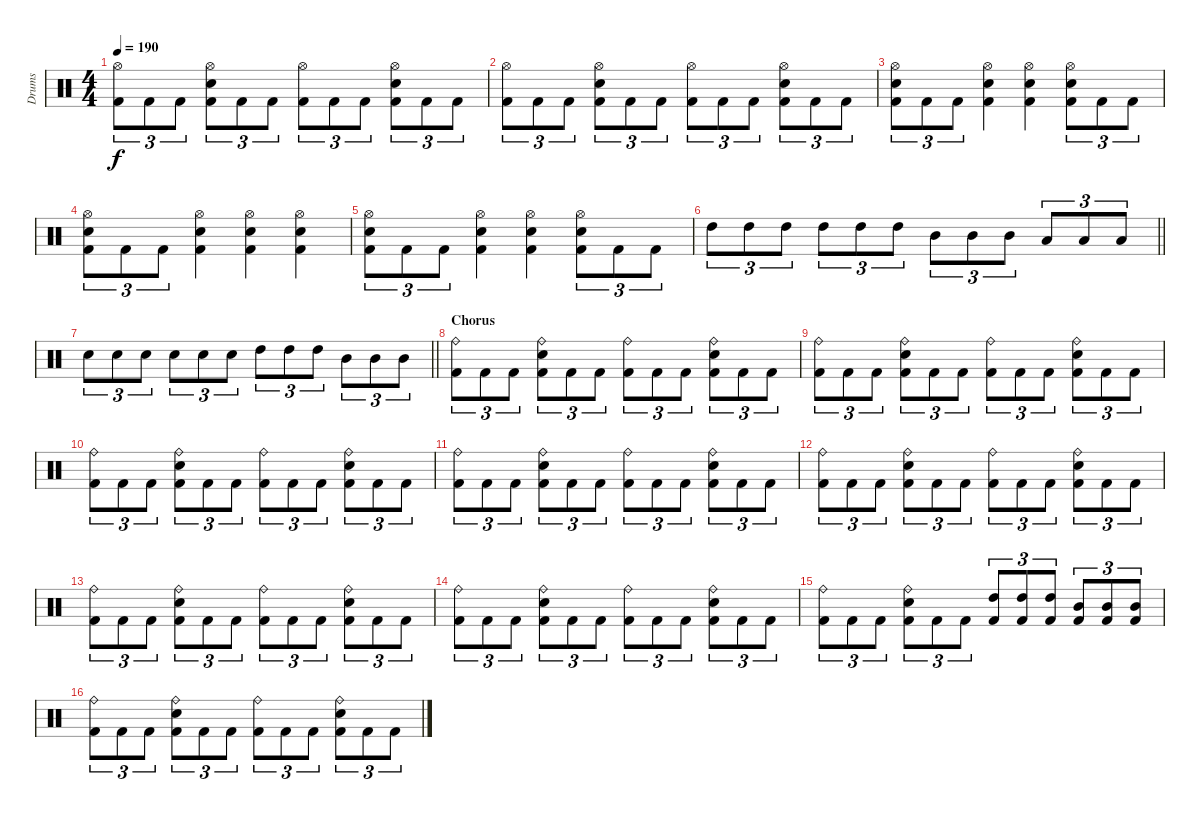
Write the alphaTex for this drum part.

\track ("Drums" "Drums") {instrument percussion}
\staff {score}
\articulation defaults
\ts (4 4)
\tempo 190
\clef neutral
\ks c
("Hi-Hat (open)" "Kick (hit) 2").8{tu (3 2) dy f} "Kick (hit) 2".8{tu (3 2)} "Kick (hit) 2".8{tu (3 2)} ("Hi-Hat (open)" "Electric Snare (hit)" "Kick (hit) 2").8{tu (3 2)} "Kick (hit) 2".8{tu (3 2)} "Kick (hit) 2".8{tu (3 2)} ("Hi-Hat (open)" "Kick (hit) 2").8{tu (3 2)} "Kick (hit) 2".8{tu (3 2)} "Kick (hit) 2".8{tu (3 2)} ("Hi-Hat (open)" "Electric Snare (hit)" "Kick (hit) 2").8{tu (3 2)} "Kick (hit) 2".8{tu (3 2)} "Kick (hit) 2".8{tu (3 2)} |
("Hi-Hat (open)" "Kick (hit) 2").8{tu (3 2)} "Kick (hit) 2".8{tu (3 2)} "Kick (hit) 2".8{tu (3 2)} ("Hi-Hat (open)" "Electric Snare (hit)" "Kick (hit) 2").8{tu (3 2)} "Kick (hit) 2".8{tu (3 2)} "Kick (hit) 2".8{tu (3 2)} ("Hi-Hat (open)" "Kick (hit) 2").8{tu (3 2)} "Kick (hit) 2".8{tu (3 2)} "Kick (hit) 2".8{tu (3 2)} ("Hi-Hat (open)" "Electric Snare (hit)" "Kick (hit) 2").8{tu (3 2)} "Kick (hit) 2".8{tu (3 2)} "Kick (hit) 2".8{tu (3 2)} |
("Hi-Hat (open)" "Electric Snare (hit)" "Kick (hit) 2").8{tu (3 2)} "Kick (hit) 2".8{tu (3 2)} "Kick (hit) 2".8{tu (3 2)} ("Hi-Hat (open)" "Electric Snare (hit)" "Kick (hit) 2").4 ("Hi-Hat (open)" "Electric Snare (hit)" "Kick (hit) 2").4 ("Hi-Hat (open)" "Electric Snare (hit)" "Kick (hit) 2").8{tu (3 2)} "Kick (hit) 2".8{tu (3 2)} "Kick (hit) 2".8{tu (3 2)} |
("Hi-Hat (open)" "Electric Snare (hit)" "Kick (hit) 2").8{tu (3 2)} "Kick (hit) 2".8{tu (3 2)} "Kick (hit) 2".8{tu (3 2)} ("Hi-Hat (open)" "Electric Snare (hit)" "Kick (hit) 2").4 ("Hi-Hat (open)" "Electric Snare (hit)" "Kick (hit) 2").4 ("Hi-Hat (open)" "Electric Snare (hit)" "Kick (hit) 2").4 |
("Hi-Hat (open)" "Electric Snare (hit)" "Kick (hit) 2").8{tu (3 2)} "Kick (hit) 2".8{tu (3 2)} "Kick (hit) 2".8{tu (3 2)} ("Hi-Hat (open)" "Electric Snare (hit)" "Kick (hit) 2").4 ("Hi-Hat (open)" "Electric Snare (hit)" "Kick (hit) 2").4 ("Hi-Hat (open)" "Electric Snare (hit)" "Kick (hit) 2").8{tu (3 2)} "Kick (hit) 2".8{tu (3 2)} "Kick (hit) 2".8{tu (3 2)} |
\barLineRight lightlight "High Tom (hit)".8{tu (3 2)} "High Tom (hit)".8{tu (3 2)} "High Tom (hit)".8{tu (3 2)} "High Tom (hit)".8{tu (3 2)} "High Tom (hit)".8{tu (3 2)} "High Tom (hit)".8{tu (3 2)} "Mid Tom (hit)".8{tu (3 2)} "Mid Tom (hit)".8{tu (3 2)} "Mid Tom (hit)".8{tu (3 2)} "Low Floor Tom (hit)".8{tu (3 2)} "Low Floor Tom (hit)".8{tu (3 2)} "Low Floor Tom (hit)".8{tu (3 2)}
|
\barLineRight lightlight "Electric Snare (hit)".8{tu (3 2)} "Electric Snare (hit)".8{tu (3 2)} "Electric Snare (hit)".8{tu (3 2)} "Electric Snare (hit)".8{tu (3 2)} "Electric Snare (hit)".8{tu (3 2)} "Electric Snare (hit)".8{tu (3 2)} "High Tom (hit)".8{tu (3 2)} "High Tom (hit)".8{tu (3 2)} "High Tom (hit)".8{tu (3 2)} "Mid Tom (hit)".8{tu (3 2)} "Mid Tom (hit)".8{tu (3 2)} "Mid Tom (hit)".8{tu (3 2)}
|
\section ("" "Chorus")
("Ride (bell)" "Kick (hit) 2").8{tu (3 2)} "Kick (hit) 2".8{tu (3 2)} "Kick (hit) 2".8{tu (3 2)} ("Ride (bell)" "Electric Snare (hit)" "Kick (hit) 2").8{tu (3 2)} "Kick (hit) 2".8{tu (3 2)} "Kick (hit) 2".8{tu (3 2)} ("Ride (bell)" "Kick (hit) 2").8{tu (3 2)} "Kick (hit) 2".8{tu (3 2)} "Kick (hit) 2".8{tu (3 2)} ("Ride (bell)" "Electric Snare (hit)" "Kick (hit) 2").8{tu (3 2)} "Kick (hit) 2".8{tu (3 2)} "Kick (hit) 2".8{tu (3 2)} |
("Ride (bell)" "Kick (hit) 2").8{tu (3 2)} "Kick (hit) 2".8{tu (3 2)} "Kick (hit) 2".8{tu (3 2)} ("Ride (bell)" "Electric Snare (hit)" "Kick (hit) 2").8{tu (3 2)} "Kick (hit) 2".8{tu (3 2)} "Kick (hit) 2".8{tu (3 2)} ("Ride (bell)" "Kick (hit) 2").8{tu (3 2)} "Kick (hit) 2".8{tu (3 2)} "Kick (hit) 2".8{tu (3 2)} ("Ride (bell)" "Electric Snare (hit)" "Kick (hit) 2").8{tu (3 2)} "Kick (hit) 2".8{tu (3 2)} "Kick (hit) 2".8{tu (3 2)} |
("Ride (bell)" "Kick (hit) 2").8{tu (3 2)} "Kick (hit) 2".8{tu (3 2)} "Kick (hit) 2".8{tu (3 2)} ("Ride (bell)" "Electric Snare (hit)" "Kick (hit) 2").8{tu (3 2)} "Kick (hit) 2".8{tu (3 2)} "Kick (hit) 2".8{tu (3 2)} ("Ride (bell)" "Kick (hit) 2").8{tu (3 2)} "Kick (hit) 2".8{tu (3 2)} "Kick (hit) 2".8{tu (3 2)} ("Ride (bell)" "Electric Snare (hit)" "Kick (hit) 2").8{tu (3 2)} "Kick (hit) 2".8{tu (3 2)} "Kick (hit) 2".8{tu (3 2)} |
("Ride (bell)" "Kick (hit) 2").8{tu (3 2)} "Kick (hit) 2".8{tu (3 2)} "Kick (hit) 2".8{tu (3 2)} ("Ride (bell)" "Electric Snare (hit)" "Kick (hit) 2").8{tu (3 2)} "Kick (hit) 2".8{tu (3 2)} "Kick (hit) 2".8{tu (3 2)} ("Ride (bell)" "Kick (hit) 2").8{tu (3 2)} "Kick (hit) 2".8{tu (3 2)} "Kick (hit) 2".8{tu (3 2)} ("Ride (bell)" "Electric Snare (hit)" "Kick (hit) 2").8{tu (3 2)} "Kick (hit) 2".8{tu (3 2)} "Kick (hit) 2".8{tu (3 2)} |
("Ride (bell)" "Kick (hit) 2").8{tu (3 2)} "Kick (hit) 2".8{tu (3 2)} "Kick (hit) 2".8{tu (3 2)} ("Ride (bell)" "Electric Snare (hit)" "Kick (hit) 2").8{tu (3 2)} "Kick (hit) 2".8{tu (3 2)} "Kick (hit) 2".8{tu (3 2)} ("Ride (bell)" "Kick (hit) 2").8{tu (3 2)} "Kick (hit) 2".8{tu (3 2)} "Kick (hit) 2".8{tu (3 2)} ("Ride (bell)" "Electric Snare (hit)" "Kick (hit) 2").8{tu (3 2)} "Kick (hit) 2".8{tu (3 2)} "Kick (hit) 2".8{tu (3 2)} |
("Ride (bell)" "Kick (hit) 2").8{tu (3 2)} "Kick (hit) 2".8{tu (3 2)} "Kick (hit) 2".8{tu (3 2)} ("Ride (bell)" "Electric Snare (hit)" "Kick (hit) 2").8{tu (3 2)} "Kick (hit) 2".8{tu (3 2)} "Kick (hit) 2".8{tu (3 2)} ("Ride (bell)" "Kick (hit) 2").8{tu (3 2)} "Kick (hit) 2".8{tu (3 2)} "Kick (hit) 2".8{tu (3 2)} ("Ride (bell)" "Electric Snare (hit)" "Kick (hit) 2").8{tu (3 2)} "Kick (hit) 2".8{tu (3 2)} "Kick (hit) 2".8{tu (3 2)} |
("Ride (bell)" "Kick (hit) 2").8{tu (3 2)} "Kick (hit) 2".8{tu (3 2)} "Kick (hit) 2".8{tu (3 2)} ("Ride (bell)" "Electric Snare (hit)" "Kick (hit) 2").8{tu (3 2)} "Kick (hit) 2".8{tu (3 2)} "Kick (hit) 2".8{tu (3 2)} ("Ride (bell)" "Kick (hit) 2").8{tu (3 2)} "Kick (hit) 2".8{tu (3 2)} "Kick (hit) 2".8{tu (3 2)} ("Ride (bell)" "Electric Snare (hit)" "Kick (hit) 2").8{tu (3 2)} "Kick (hit) 2".8{tu (3 2)} "Kick (hit) 2".8{tu (3 2)} |
("Ride (bell)" "Kick (hit) 2").8{tu (3 2)} "Kick (hit) 2".8{tu (3 2)} "Kick (hit) 2".8{tu (3 2)} ("Ride (bell)" "Electric Snare (hit)" "Kick (hit) 2").8{tu (3 2)} "Kick (hit) 2".8{tu (3 2)} "Kick (hit) 2".8{tu (3 2)} ("High Tom (hit)" "Kick (hit) 2").8{tu (3 2)} ("High Tom (hit)" "Kick (hit) 2").8{tu (3 2)} ("High Tom (hit)" "Kick (hit) 2").8{tu (3 2)} ("Mid Tom (hit)" "Kick (hit) 2").8{tu (3 2)} ("Mid Tom (hit)" "Kick (hit) 2").8{tu (3 2)} ("Mid Tom (hit)" "Kick (hit) 2").8{tu (3 2)} |
("Ride (bell)" "Kick (hit) 2").8{tu (3 2)} "Kick (hit) 2".8{tu (3 2)} "Kick (hit) 2".8{tu (3 2)} ("Ride (bell)" "Electric Snare (hit)" "Kick (hit) 2").8{tu (3 2)} "Kick (hit) 2".8{tu (3 2)} "Kick (hit) 2".8{tu (3 2)} ("Ride (bell)" "Kick (hit) 2").8{tu (3 2)} "Kick (hit) 2".8{tu (3 2)} "Kick (hit) 2".8{tu (3 2)} ("Ride (bell)" "Electric Snare (hit)" "Kick (hit) 2").8{tu (3 2)} "Kick (hit) 2".8{tu (3 2)} "Kick (hit) 2".8{tu (3 2)}
